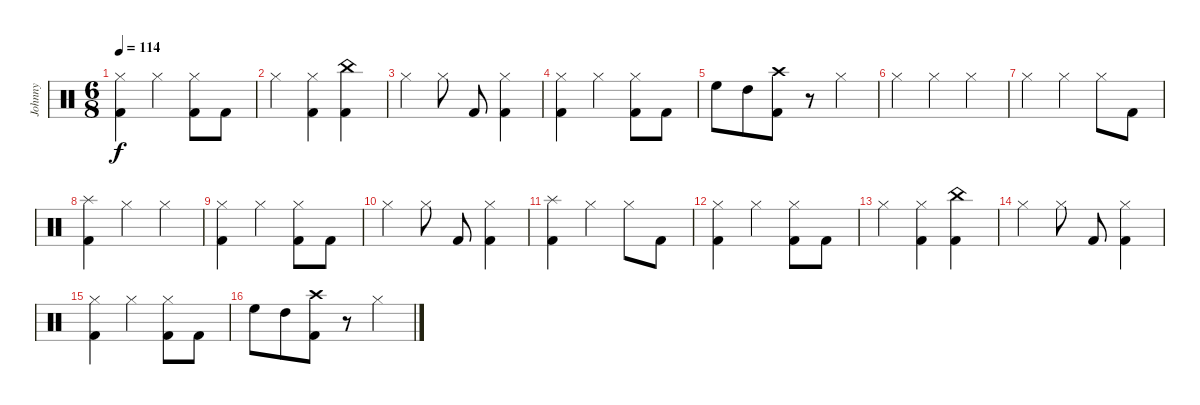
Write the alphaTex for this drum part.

\track ("Johnny" "Johnny") {instrument percussion}
\staff {score}
\articulation defaults
\ts (6 8)
\tempo 114
\clef neutral
\ks c
("Hi-Hat (closed)" "Kick (hit) 2").4{dy f} "Hi-Hat (closed)".4 ("Hi-Hat (closed)" "Kick (hit) 2").8 "Kick (hit) 2".8 |
"Hi-Hat (closed)".4 ("Hi-Hat (closed)" "Kick (hit) 2").4 ("China (hit)" "Kick (hit) 2").4 |
"Hi-Hat (closed)".4 "Hi-Hat (closed)".8 "Kick (hit) 2".8 ("Hi-Hat (closed)" "Kick (hit) 2").4 |
("Hi-Hat (closed)" "Kick (hit) 2").4 "Hi-Hat (closed)".4 ("Hi-Hat (closed)" "Kick (hit) 2").8 "Kick (hit) 2".8 |
"High Floor Tom (hit)".8 "High Tom (hit)".8 ("Kick (hit) 2" "Crash high (hit)").8 r.8 "Hi-Hat (closed)".4 |
"Hi-Hat (closed)".4 "Hi-Hat (closed)".4 "Hi-Hat (closed)".4 |
"Hi-Hat (closed)".4 "Hi-Hat (closed)".4 "Hi-Hat (closed)".8 "Kick (hit) 2".8 |
("Splash (hit)" "Kick (hit) 2").4 "Hi-Hat (closed)".4 "Hi-Hat (closed)".4 |
("Hi-Hat (closed)" "Kick (hit) 2").4 "Hi-Hat (closed)".4 ("Hi-Hat (closed)" "Kick (hit) 2").8 "Kick (hit) 2".8 |
"Hi-Hat (closed)".4 "Hi-Hat (closed)".8 "Kick (hit) 2".8 ("Hi-Hat (closed)" "Kick (hit) 2").4 |
("Splash (hit)" "Kick (hit) 2").4 "Hi-Hat (closed)".4 "Hi-Hat (closed)".8 "Kick (hit) 2".8 |
("Hi-Hat (closed)" "Kick (hit) 2").4 "Hi-Hat (closed)".4 ("Hi-Hat (closed)" "Kick (hit) 2").8 "Kick (hit) 2".8 |
"Hi-Hat (closed)".4 ("Hi-Hat (closed)" "Kick (hit) 2").4 ("China (hit)" "Kick (hit) 2").4 |
"Hi-Hat (closed)".4 "Hi-Hat (closed)".8 "Kick (hit) 2".8 ("Hi-Hat (closed)" "Kick (hit) 2").4 |
("Hi-Hat (closed)" "Kick (hit) 2").4 "Hi-Hat (closed)".4 ("Hi-Hat (closed)" "Kick (hit) 2").8 "Kick (hit) 2".8 |
"High Floor Tom (hit)".8 "High Tom (hit)".8 ("Kick (hit) 2" "Crash high (hit)").8 r.8 "Hi-Hat (closed)".4
